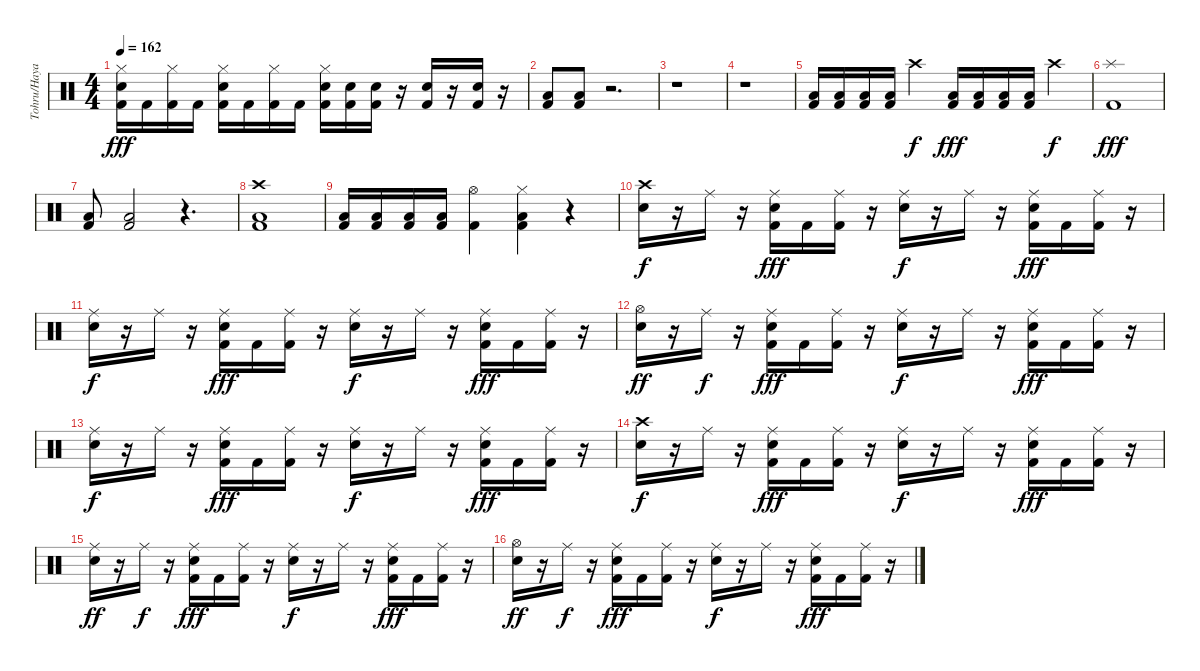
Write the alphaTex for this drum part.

\track ("Tohru/Hayato" "Tohru/Haya") {instrument percussion}
\staff {score}
\articulation defaults
\ts (4 4)
\tempo 162
\clef neutral
\ks c
("Hi-Hat (closed)" "Electric Snare (hit)" "Kick (hit) 2").16{dy fff} "Kick (hit) 2".16 ("Hi-Hat (closed)" "Kick (hit) 2").16 "Kick (hit) 2".16 ("Hi-Hat (closed)" "Electric Snare (hit)" "Kick (hit) 2").16 "Kick (hit) 2".16 ("Hi-Hat (closed)" "Kick (hit) 2").16 "Kick (hit) 2".16 ("Hi-Hat (closed)" "Electric Snare (hit)" "Kick (hit) 2").16 ("Electric Snare (hit)" "Kick (hit) 2").16 ("Electric Snare (hit)" "Kick (hit) 2").16 r.16 ("Electric Snare (hit)" "Kick (hit) 2").16 r.16 ("Electric Snare (hit)" "Kick (hit) 2").16 r.16 |
("Low Tom (hit)" "Kick (hit) 2").8 ("Low Tom (hit)" "Kick (hit) 2").8 r.2{d} |
r.1 |
r.1 |
("Low Tom (hit)" "Kick (hit) 2").16 ("Low Tom (hit)" "Kick (hit) 2").16 ("Low Tom (hit)" "Kick (hit) 2").16 ("Low Tom (hit)" "Kick (hit) 2").16 "Crash high (hit)".4{dy f} ("Low Tom (hit)" "Kick (hit) 2").16{dy fff} ("Low Tom (hit)" "Kick (hit) 2").16 ("Low Tom (hit)" "Kick (hit) 2").16 ("Low Tom (hit)" "Kick (hit) 2").16 "Crash high (hit)".4{dy f} |
("Splash (hit)" "Kick (hit) 2").1{dy fff} |
("Low Tom (hit)" "Kick (hit) 2").8 ("Low Tom (hit)" "Kick (hit) 2").2 r.4{d} |
("Crash high (hit)" "Low Tom (hit)" "Kick (hit) 2").1 |
("Low Tom (hit)" "Kick (hit) 2").16 ("Low Tom (hit)" "Kick (hit) 2").16 ("Low Tom (hit)" "Kick (hit) 2").16 ("Low Tom (hit)" "Kick (hit) 2").16 ("Hi-Hat (open)" "Kick (hit) 2").4 ("Hi-Hat (closed)" "Low Tom (hit)" "Kick (hit) 2").4 r.4 |
("Crash high (hit)" "Electric Snare (hit)").16{dy f} r.16 "Ride (middle)".16 r.16 ("Ride (middle)" "Electric Snare (hit)" "Kick (hit) 2").16{dy fff} "Kick (hit) 2".16 ("Ride (middle)" "Kick (hit) 2").16 r.16 ("Ride (middle)" "Electric Snare (hit)").16{dy f} r.16 "Ride (middle)".16 r.16 ("Ride (middle)" "Electric Snare (hit)" "Kick (hit) 2").16{dy fff} "Kick (hit) 2".16 ("Ride (middle)" "Kick (hit) 2").16 r.16 |
("Ride (middle)" "Electric Snare (hit)").16{dy f} r.16 "Ride (middle)".16 r.16 ("Ride (middle)" "Electric Snare (hit)" "Kick (hit) 2").16{dy fff} "Kick (hit) 2".16 ("Ride (middle)" "Kick (hit) 2").16 r.16 ("Ride (middle)" "Electric Snare (hit)").16{dy f} r.16 "Ride (middle)".16 r.16 ("Ride (middle)" "Electric Snare (hit)" "Kick (hit) 2").16{dy fff} "Kick (hit) 2".16 ("Ride (middle)" "Kick (hit) 2").16 r.16 |
("Hi-Hat (open)" "Electric Snare (hit)").16{dy ff} r.16 "Ride (middle)".16{dy f} r.16 ("Ride (middle)" "Electric Snare (hit)" "Kick (hit) 2").16{dy fff} "Kick (hit) 2".16 ("Ride (middle)" "Kick (hit) 2").16 r.16 ("Ride (middle)" "Electric Snare (hit)").16{dy f} r.16 "Ride (middle)".16 r.16 ("Ride (middle)" "Electric Snare (hit)" "Kick (hit) 2").16{dy fff} "Kick (hit) 2".16 ("Ride (middle)" "Kick (hit) 2").16 r.16 |
("Ride (middle)" "Electric Snare (hit)").16{dy f} r.16 "Ride (middle)".16 r.16 ("Ride (middle)" "Electric Snare (hit)" "Kick (hit) 2").16{dy fff} "Kick (hit) 2".16 ("Ride (middle)" "Kick (hit) 2").16 r.16 ("Ride (middle)" "Electric Snare (hit)").16{dy f} r.16 "Ride (middle)".16 r.16 ("Ride (middle)" "Electric Snare (hit)" "Kick (hit) 2").16{dy fff} "Kick (hit) 2".16 ("Ride (middle)" "Kick (hit) 2").16 r.16 |
("Crash high (hit)" "Electric Snare (hit)").16{dy f} r.16 "Ride (middle)".16 r.16 ("Ride (middle)" "Electric Snare (hit)" "Kick (hit) 2").16{dy fff} "Kick (hit) 2".16 ("Ride (middle)" "Kick (hit) 2").16 r.16 ("Ride (middle)" "Electric Snare (hit)").16{dy f} r.16 "Ride (middle)".16 r.16 ("Ride (middle)" "Electric Snare (hit)" "Kick (hit) 2").16{dy fff} "Kick (hit) 2".16 ("Ride (middle)" "Kick (hit) 2").16 r.16 |
("Ride (middle)" "Electric Snare (hit)").16{dy ff} r.16 "Ride (middle)".16{dy f} r.16 ("Ride (middle)" "Electric Snare (hit)" "Kick (hit) 2").16{dy fff} "Kick (hit) 2".16 ("Ride (middle)" "Kick (hit) 2").16 r.16 ("Ride (middle)" "Electric Snare (hit)").16{dy f} r.16 "Ride (middle)".16 r.16 ("Ride (middle)" "Electric Snare (hit)" "Kick (hit) 2").16{dy fff} "Kick (hit) 2".16 ("Ride (middle)" "Kick (hit) 2").16 r.16 |
("Hi-Hat (open)" "Electric Snare (hit)").16{dy ff} r.16 "Ride (middle)".16{dy f} r.16 ("Ride (middle)" "Electric Snare (hit)" "Kick (hit) 2").16{dy fff} "Kick (hit) 2".16 ("Ride (middle)" "Kick (hit) 2").16 r.16 ("Ride (middle)" "Electric Snare (hit)").16{dy f} r.16 "Ride (middle)".16 r.16 ("Ride (middle)" "Electric Snare (hit)" "Kick (hit) 2").16{dy fff} "Kick (hit) 2".16 ("Ride (middle)" "Kick (hit) 2").16 r.16
